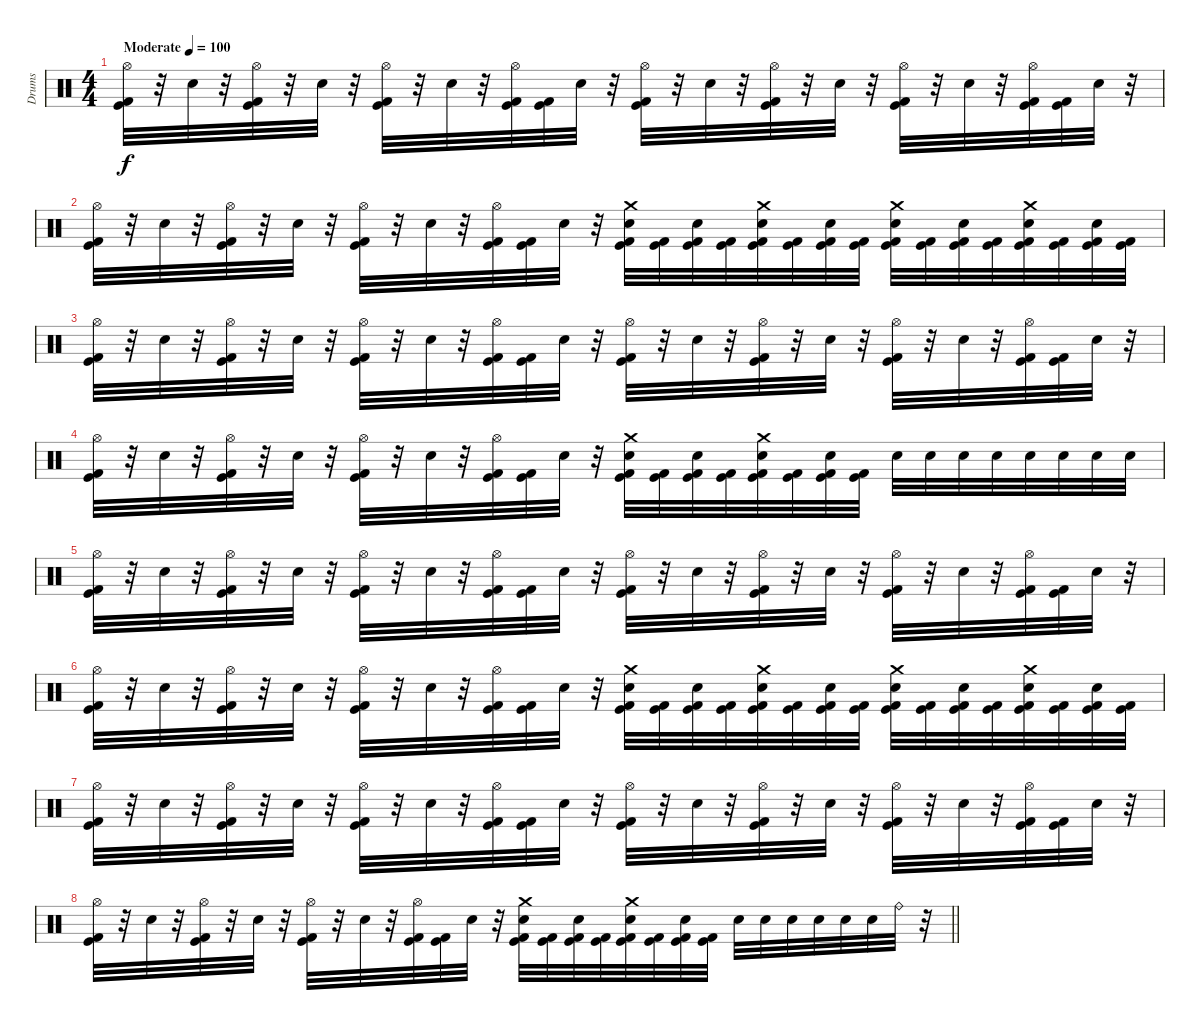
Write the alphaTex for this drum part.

\track ("Drums" "Drums") {instrument percussion}
\staff {score}
\articulation defaults
\ts (4 4)
\tempo (100 "Moderate")
\clef neutral
\ks c
("Hi-Hat (open)" "Kick (hit)" "Kick (hit) 2").32{dy f} r.32 "Electric Snare (hit)".32 r.32 ("Hi-Hat (open)" "Kick (hit)" "Kick (hit) 2").32 r.32 "Electric Snare (hit)".32 r.32 ("Hi-Hat (open)" "Kick (hit)" "Kick (hit) 2").32 r.32 "Electric Snare (hit)".32 r.32 ("Hi-Hat (open)" "Kick (hit)" "Kick (hit) 2").32 ("Kick (hit)" "Kick (hit) 2").32 "Electric Snare (hit)".32 r.32 ("Hi-Hat (open)" "Kick (hit)" "Kick (hit) 2").32 r.32 "Electric Snare (hit)".32 r.32 ("Hi-Hat (open)" "Kick (hit)" "Kick (hit) 2").32 r.32 "Electric Snare (hit)".32 r.32 ("Hi-Hat (open)" "Kick (hit)" "Kick (hit) 2").32 r.32 "Electric Snare (hit)".32 r.32 ("Hi-Hat (open)" "Kick (hit)" "Kick (hit) 2").32 ("Kick (hit)" "Kick (hit) 2").32 "Electric Snare (hit)".32 r.32 |
("Hi-Hat (open)" "Kick (hit)" "Kick (hit) 2").32 r.32 "Electric Snare (hit)".32 r.32 ("Hi-Hat (open)" "Kick (hit)" "Kick (hit) 2").32 r.32 "Electric Snare (hit)".32 r.32 ("Hi-Hat (open)" "Kick (hit)" "Kick (hit) 2").32 r.32 "Electric Snare (hit)".32 r.32 ("Hi-Hat (open)" "Kick (hit)" "Kick (hit) 2").32 ("Kick (hit)" "Kick (hit) 2").32 "Electric Snare (hit)".32 r.32 ("Crash medium (hit)" "Electric Snare (hit)" "Kick (hit)" "Kick (hit) 2").32 ("Kick (hit)" "Kick (hit) 2").32 ("Electric Snare (hit)" "Kick (hit)" "Kick (hit) 2").32 ("Kick (hit)" "Kick (hit) 2").32 ("Crash medium (hit)" "Electric Snare (hit)" "Kick (hit)" "Kick (hit) 2").32 ("Kick (hit)" "Kick (hit) 2").32 ("Electric Snare (hit)" "Kick (hit)" "Kick (hit) 2").32 ("Kick (hit)" "Kick (hit) 2").32 ("Crash medium (hit)" "Electric Snare (hit)" "Kick (hit)" "Kick (hit) 2").32 ("Kick (hit)" "Kick (hit) 2").32 ("Electric Snare (hit)" "Kick (hit)" "Kick (hit) 2").32 ("Kick (hit)" "Kick (hit) 2").32 ("Crash medium (hit)" "Electric Snare (hit)" "Kick (hit)" "Kick (hit) 2").32 ("Kick (hit)" "Kick (hit) 2").32 ("Electric Snare (hit)" "Kick (hit)" "Kick (hit) 2").32 ("Kick (hit)" "Kick (hit) 2").32 |
("Hi-Hat (open)" "Kick (hit)" "Kick (hit) 2").32 r.32 "Electric Snare (hit)".32 r.32 ("Hi-Hat (open)" "Kick (hit)" "Kick (hit) 2").32 r.32 "Electric Snare (hit)".32 r.32 ("Hi-Hat (open)" "Kick (hit)" "Kick (hit) 2").32 r.32 "Electric Snare (hit)".32 r.32 ("Hi-Hat (open)" "Kick (hit)" "Kick (hit) 2").32 ("Kick (hit)" "Kick (hit) 2").32 "Electric Snare (hit)".32 r.32 ("Hi-Hat (open)" "Kick (hit)" "Kick (hit) 2").32 r.32 "Electric Snare (hit)".32 r.32 ("Hi-Hat (open)" "Kick (hit)" "Kick (hit) 2").32 r.32 "Electric Snare (hit)".32 r.32 ("Hi-Hat (open)" "Kick (hit)" "Kick (hit) 2").32 r.32 "Electric Snare (hit)".32 r.32 ("Hi-Hat (open)" "Kick (hit)" "Kick (hit) 2").32 ("Kick (hit)" "Kick (hit) 2").32 "Electric Snare (hit)".32 r.32 |
("Hi-Hat (open)" "Kick (hit)" "Kick (hit) 2").32 r.32 "Electric Snare (hit)".32 r.32 ("Hi-Hat (open)" "Kick (hit)" "Kick (hit) 2").32 r.32 "Electric Snare (hit)".32 r.32 ("Hi-Hat (open)" "Kick (hit)" "Kick (hit) 2").32 r.32 "Electric Snare (hit)".32 r.32 ("Hi-Hat (open)" "Kick (hit)" "Kick (hit) 2").32 ("Kick (hit)" "Kick (hit) 2").32 "Electric Snare (hit)".32 r.32 ("Crash medium (hit)" "Electric Snare (hit)" "Kick (hit)" "Kick (hit) 2").32 ("Kick (hit)" "Kick (hit) 2").32 ("Electric Snare (hit)" "Kick (hit)" "Kick (hit) 2").32 ("Kick (hit)" "Kick (hit) 2").32 ("Crash medium (hit)" "Electric Snare (hit)" "Kick (hit)" "Kick (hit) 2").32 ("Kick (hit)" "Kick (hit) 2").32 ("Electric Snare (hit)" "Kick (hit)" "Kick (hit) 2").32 ("Kick (hit)" "Kick (hit) 2").32 "Electric Snare (hit)".32 "Electric Snare (hit)".32 "Electric Snare (hit)".32 "Electric Snare (hit)".32 "Electric Snare (hit)".32 "Electric Snare (hit)".32 "Electric Snare (hit)".32 "Electric Snare (hit)".32 |
("Hi-Hat (open)" "Kick (hit)" "Kick (hit) 2").32 r.32 "Electric Snare (hit)".32 r.32 ("Hi-Hat (open)" "Kick (hit)" "Kick (hit) 2").32 r.32 "Electric Snare (hit)".32 r.32 ("Hi-Hat (open)" "Kick (hit)" "Kick (hit) 2").32 r.32 "Electric Snare (hit)".32 r.32 ("Hi-Hat (open)" "Kick (hit)" "Kick (hit) 2").32 ("Kick (hit)" "Kick (hit) 2").32 "Electric Snare (hit)".32 r.32 ("Hi-Hat (open)" "Kick (hit)" "Kick (hit) 2").32 r.32 "Electric Snare (hit)".32 r.32 ("Hi-Hat (open)" "Kick (hit)" "Kick (hit) 2").32 r.32 "Electric Snare (hit)".32 r.32 ("Hi-Hat (open)" "Kick (hit)" "Kick (hit) 2").32 r.32 "Electric Snare (hit)".32 r.32 ("Hi-Hat (open)" "Kick (hit)" "Kick (hit) 2").32 ("Kick (hit)" "Kick (hit) 2").32 "Electric Snare (hit)".32 r.32 |
("Hi-Hat (open)" "Kick (hit)" "Kick (hit) 2").32 r.32 "Electric Snare (hit)".32 r.32 ("Hi-Hat (open)" "Kick (hit)" "Kick (hit) 2").32 r.32 "Electric Snare (hit)".32 r.32 ("Hi-Hat (open)" "Kick (hit)" "Kick (hit) 2").32 r.32 "Electric Snare (hit)".32 r.32 ("Hi-Hat (open)" "Kick (hit)" "Kick (hit) 2").32 ("Kick (hit)" "Kick (hit) 2").32 "Electric Snare (hit)".32 r.32 ("Crash medium (hit)" "Electric Snare (hit)" "Kick (hit)" "Kick (hit) 2").32 ("Kick (hit)" "Kick (hit) 2").32 ("Electric Snare (hit)" "Kick (hit)" "Kick (hit) 2").32 ("Kick (hit)" "Kick (hit) 2").32 ("Crash medium (hit)" "Electric Snare (hit)" "Kick (hit)" "Kick (hit) 2").32 ("Kick (hit)" "Kick (hit) 2").32 ("Electric Snare (hit)" "Kick (hit)" "Kick (hit) 2").32 ("Kick (hit)" "Kick (hit) 2").32 ("Crash medium (hit)" "Electric Snare (hit)" "Kick (hit)" "Kick (hit) 2").32 ("Kick (hit)" "Kick (hit) 2").32 ("Electric Snare (hit)" "Kick (hit)" "Kick (hit) 2").32 ("Kick (hit)" "Kick (hit) 2").32 ("Crash medium (hit)" "Electric Snare (hit)" "Kick (hit)" "Kick (hit) 2").32 ("Kick (hit)" "Kick (hit) 2").32 ("Electric Snare (hit)" "Kick (hit)" "Kick (hit) 2").32 ("Kick (hit)" "Kick (hit) 2").32 |
("Hi-Hat (open)" "Kick (hit)" "Kick (hit) 2").32 r.32 "Electric Snare (hit)".32 r.32 ("Hi-Hat (open)" "Kick (hit)" "Kick (hit) 2").32 r.32 "Electric Snare (hit)".32 r.32 ("Hi-Hat (open)" "Kick (hit)" "Kick (hit) 2").32 r.32 "Electric Snare (hit)".32 r.32 ("Hi-Hat (open)" "Kick (hit)" "Kick (hit) 2").32 ("Kick (hit)" "Kick (hit) 2").32 "Electric Snare (hit)".32 r.32 ("Hi-Hat (open)" "Kick (hit)" "Kick (hit) 2").32 r.32 "Electric Snare (hit)".32 r.32 ("Hi-Hat (open)" "Kick (hit)" "Kick (hit) 2").32 r.32 "Electric Snare (hit)".32 r.32 ("Hi-Hat (open)" "Kick (hit)" "Kick (hit) 2").32 r.32 "Electric Snare (hit)".32 r.32 ("Hi-Hat (open)" "Kick (hit)" "Kick (hit) 2").32 ("Kick (hit)" "Kick (hit) 2").32 "Electric Snare (hit)".32 r.32 |
\barLineRight lightlight
("Hi-Hat (open)" "Kick (hit)" "Kick (hit) 2").32 r.32 "Electric Snare (hit)".32 r.32 ("Hi-Hat (open)" "Kick (hit)" "Kick (hit) 2").32 r.32 "Electric Snare (hit)".32 r.32 ("Hi-Hat (open)" "Kick (hit)" "Kick (hit) 2").32 r.32 "Electric Snare (hit)".32 r.32 ("Hi-Hat (open)" "Kick (hit)" "Kick (hit) 2").32 ("Kick (hit)" "Kick (hit) 2").32 "Electric Snare (hit)".32 r.32 ("Crash medium (hit)" "Electric Snare (hit)" "Kick (hit)" "Kick (hit) 2").32 ("Kick (hit)" "Kick (hit) 2").32 ("Electric Snare (hit)" "Kick (hit)" "Kick (hit) 2").32 ("Kick (hit)" "Kick (hit) 2").32 ("Crash medium (hit)" "Electric Snare (hit)" "Kick (hit)" "Kick (hit) 2").32 ("Kick (hit)" "Kick (hit) 2").32 ("Electric Snare (hit)" "Kick (hit)" "Kick (hit) 2").32 ("Kick (hit)" "Kick (hit) 2").32 "Electric Snare (hit)".32 "Electric Snare (hit)".32 "Electric Snare (hit)".32 "Electric Snare (hit)".32 "Electric Snare (hit)".32 "Electric Snare (hit)".32 "Ride (bell)".32 r.32
